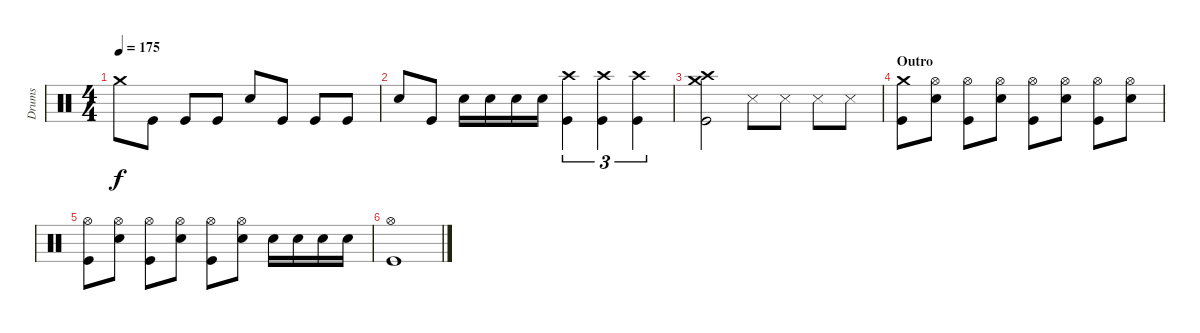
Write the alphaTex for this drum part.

\track ("Drums" "Drums") {instrument percussion}
\staff {score}
\articulation defaults
\ts (4 4)
\tempo 175
\clef neutral
\ks c "Crash medium (hit)".8{dy f} "Kick (hit)".8 "Kick (hit)".8 "Kick (hit)".8 "Snare (hit) 2".8 "Kick (hit)".8 "Kick (hit)".8 "Kick (hit)".8
|
"Snare (hit) 2".8 "Kick (hit)".8 "Snare (hit) 2".16 "Snare (hit) 2".16 "Snare (hit) 2".16 "Snare (hit) 2".16 ("Crash high (hit)" "Kick (hit)").4{tu (3 2)} ("Crash high (hit)" "Kick (hit)").4{tu (3 2)} ("Crash high (hit)" "Kick (hit)").4{tu (3 2)} |
("Crash high (hit)" "Crash medium (hit)" "Kick (hit)").2 "Snare (side stick) 3".8 "Snare (side stick) 3".8 "Snare (side stick) 3".8 "Snare (side stick) 3".8 |
\section ("" "Outro")
("Crash medium (hit)" "Kick (hit)").8 ("Hi-Hat (open)" "Snare (hit) 2").8 ("Hi-Hat (open)" "Kick (hit)").8 ("Hi-Hat (open)" "Snare (hit) 2").8 ("Hi-Hat (open)" "Kick (hit)").8 ("Hi-Hat (open)" "Snare (hit) 2").8 ("Hi-Hat (open)" "Kick (hit)").8 ("Hi-Hat (open)" "Snare (hit) 2").8 |
("Hi-Hat (open)" "Kick (hit)").8 ("Hi-Hat (open)" "Snare (hit) 2").8 ("Hi-Hat (open)" "Kick (hit)").8 ("Hi-Hat (open)" "Snare (hit) 2").8 ("Hi-Hat (open)" "Kick (hit)").8 ("Hi-Hat (open)" "Snare (hit) 2").8 "Snare (hit) 2".16 "Snare (hit) 2".16 "Snare (hit) 2".16 "Snare (hit) 2".16 |
("Hi-Hat (open)" "Kick (hit)").1
